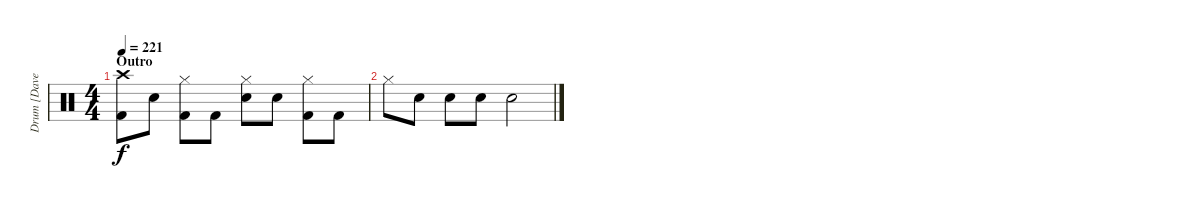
\track ("Drum [Dave Grohl]" "Drum [Dave") {instrument percussion bank 255}
\staff {score}
\articulation defaults
\ts (4 4)
\section ("" "Outro")
\tempo 221
\clef neutral
\ks c
("Crash high (hit)" "Kick (hit) 2").8{dy f} "Snare (hit) 2".8 ("Hi-Hat (closed)" "Kick (hit) 2").8 "Kick (hit) 2".8 ("Hi-Hat (closed)" "Snare (hit) 2").8 "Snare (hit) 2".8 ("Hi-Hat (closed)" "Kick (hit) 2").8 "Kick (hit) 2".8 |
"Hi-Hat (closed)".8 "Snare (hit) 2".8 "Snare (hit) 2".8 "Snare (hit) 2".8 "Snare (hit) 2".2
